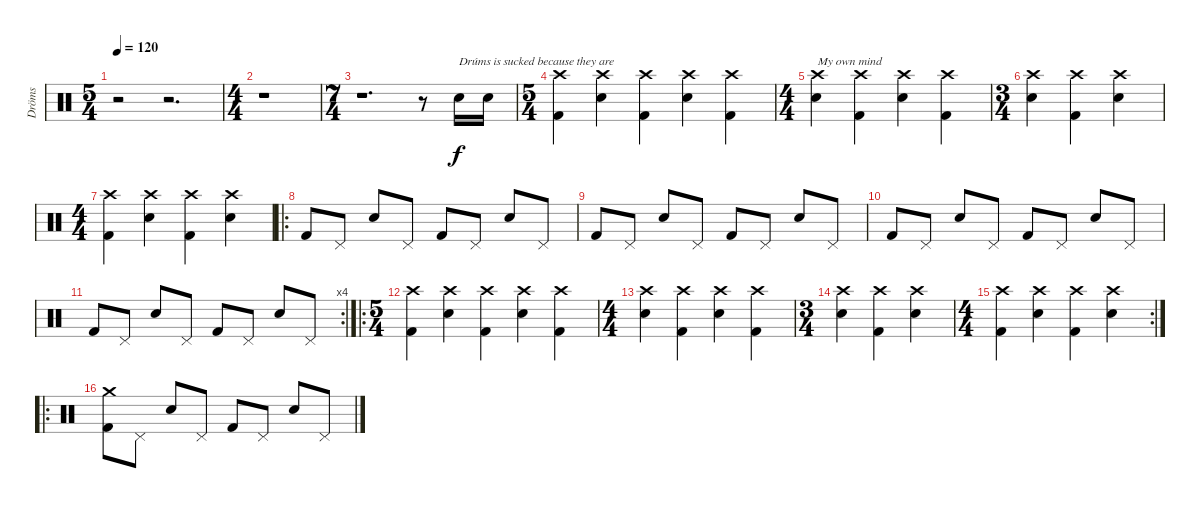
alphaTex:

\track ("Dröms" "Dröms") {instrument percussion}
\staff {score}
\articulation defaults
\ts (5 4)
\tempo 120
\clef neutral
\ks c
r.2{dy f} r.2{d} |
\ts (4 4)
r.1 |
\ts (7 4)
r.1{d} r.8 "Snare (hit) 2".16{txt "Drúms is sucked because they are"} "Snare (hit) 2".16 |
\ts (5 4)
("Crash high (hit)" "Kick (hit) 2").4 ("Crash high (hit)" "Snare (hit) 2").4 ("Crash high (hit)" "Kick (hit) 2").4 ("Crash high (hit)" "Snare (hit) 2").4 ("Crash high (hit)" "Kick (hit) 2").4 |
\ts (4 4)
("Crash high (hit)" "Snare (hit) 2").4{txt "My own mind"} ("Crash high (hit)" "Kick (hit) 2").4 ("Crash high (hit)" "Snare (hit) 2").4 ("Crash high (hit)" "Kick (hit) 2").4 |
\ts (3 4)
("Crash high (hit)" "Snare (hit) 2").4 ("Crash high (hit)" "Kick (hit) 2").4 ("Crash high (hit)" "Snare (hit) 2").4 |
\ts (4 4)
("Crash high (hit)" "Kick (hit) 2").4 ("Crash high (hit)" "Snare (hit) 2").4 ("Crash high (hit)" "Kick (hit) 2").4 ("Crash high (hit)" "Snare (hit) 2").4 |
\ro "Kick (hit) 2".8 "Pedal Hi-Hat (hit)".8 "Snare (hit) 2".8 "Pedal Hi-Hat (hit)".8 "Kick (hit) 2".8 "Pedal Hi-Hat (hit)".8 "Snare (hit) 2".8 "Pedal Hi-Hat (hit)".8
|
"Kick (hit) 2".8 "Pedal Hi-Hat (hit)".8 "Snare (hit) 2".8 "Pedal Hi-Hat (hit)".8 "Kick (hit) 2".8 "Pedal Hi-Hat (hit)".8 "Snare (hit) 2".8 "Pedal Hi-Hat (hit)".8 |
"Kick (hit) 2".8 "Pedal Hi-Hat (hit)".8 "Snare (hit) 2".8 "Pedal Hi-Hat (hit)".8 "Kick (hit) 2".8 "Pedal Hi-Hat (hit)".8 "Snare (hit) 2".8 "Pedal Hi-Hat (hit)".8 |
\rc 4 "Kick (hit) 2".8 "Pedal Hi-Hat (hit)".8 "Snare (hit) 2".8 "Pedal Hi-Hat (hit)".8 "Kick (hit) 2".8 "Pedal Hi-Hat (hit)".8 "Snare (hit) 2".8 "Pedal Hi-Hat (hit)".8
|
\ro
\ts (5 4)
("Crash high (hit)" "Kick (hit) 2").4 ("Crash high (hit)" "Snare (hit) 2").4 ("Crash high (hit)" "Kick (hit) 2").4 ("Crash high (hit)" "Snare (hit) 2").4 ("Crash high (hit)" "Kick (hit) 2").4 |
\ts (4 4)
("Crash high (hit)" "Snare (hit) 2").4 ("Crash high (hit)" "Kick (hit) 2").4 ("Crash high (hit)" "Snare (hit) 2").4 ("Crash high (hit)" "Kick (hit) 2").4 |
\ts (3 4)
("Crash high (hit)" "Snare (hit) 2").4 ("Crash high (hit)" "Kick (hit) 2").4 ("Crash high (hit)" "Snare (hit) 2").4 |
\rc 2
\ts (4 4)
("Crash high (hit)" "Kick (hit) 2").4 ("Crash high (hit)" "Snare (hit) 2").4 ("Crash high (hit)" "Kick (hit) 2").4 ("Crash high (hit)" "Snare (hit) 2").4 |
\ro
("Crash medium (hit)" "Kick (hit) 2").8 "Pedal Hi-Hat (hit)".8 "Snare (hit) 2".8 "Pedal Hi-Hat (hit)".8 "Kick (hit) 2".8 "Pedal Hi-Hat (hit)".8 "Snare (hit) 2".8 "Pedal Hi-Hat (hit)".8
